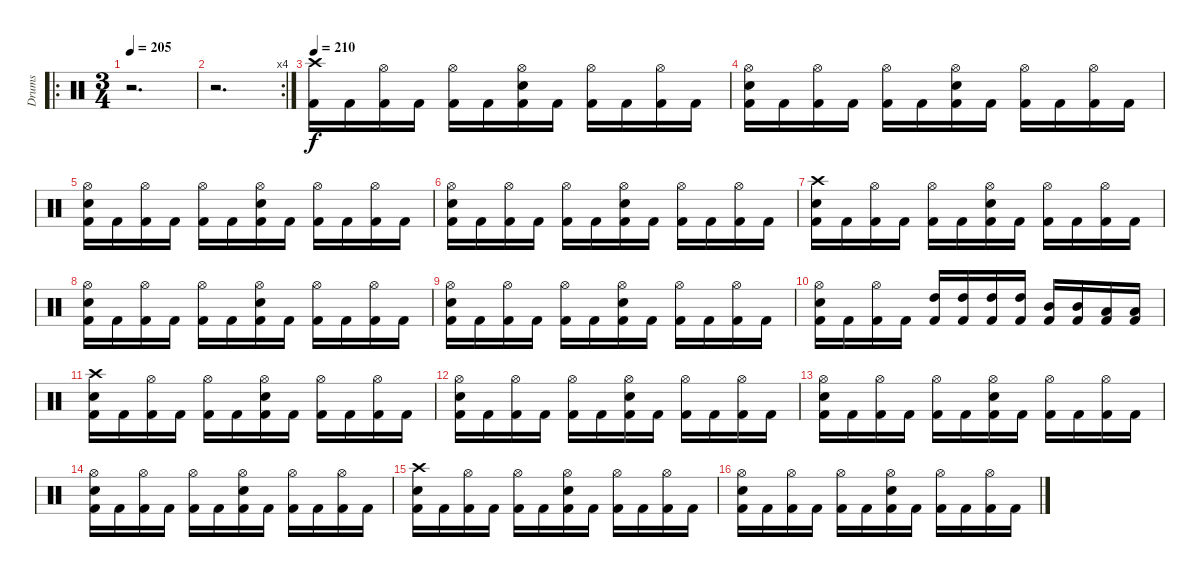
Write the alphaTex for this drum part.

\track ("Drums" "Drums") {instrument percussion}
\staff {score}
\articulation defaults
\ro
\ts (3 4)
\tempo 205
\tempo 160
\tempo 205
\clef neutral
\ks c
r.2{d dy f} |
\rc 4
r.2{d} |
\tempo 210
("Kick (hit) 2" "Crash high (hit)").16 "Kick (hit) 2".16 ("Kick (hit) 2" "Hi-Hat (open)").16 "Kick (hit) 2".16 ("Kick (hit) 2" "Hi-Hat (open)").16 "Kick (hit) 2".16 ("Kick (hit) 2" "Electric Snare (hit)" "Hi-Hat (open)").16 "Kick (hit) 2".16 ("Kick (hit) 2" "Hi-Hat (open)").16 "Kick (hit) 2".16 ("Kick (hit) 2" "Hi-Hat (open)").16 "Kick (hit) 2".16 |
("Kick (hit) 2" "Electric Snare (hit)" "Hi-Hat (open)").16 "Kick (hit) 2".16 ("Kick (hit) 2" "Hi-Hat (open)").16 "Kick (hit) 2".16 ("Kick (hit) 2" "Hi-Hat (open)").16 "Kick (hit) 2".16 ("Kick (hit) 2" "Electric Snare (hit)" "Hi-Hat (open)").16 "Kick (hit) 2".16 ("Kick (hit) 2" "Hi-Hat (open)").16 "Kick (hit) 2".16 ("Kick (hit) 2" "Hi-Hat (open)").16 "Kick (hit) 2".16 |
("Kick (hit) 2" "Electric Snare (hit)" "Hi-Hat (open)").16 "Kick (hit) 2".16 ("Kick (hit) 2" "Hi-Hat (open)").16 "Kick (hit) 2".16 ("Kick (hit) 2" "Hi-Hat (open)").16 "Kick (hit) 2".16 ("Kick (hit) 2" "Electric Snare (hit)" "Hi-Hat (open)").16 "Kick (hit) 2".16 ("Kick (hit) 2" "Hi-Hat (open)").16 "Kick (hit) 2".16 ("Kick (hit) 2" "Hi-Hat (open)").16 "Kick (hit) 2".16 |
("Kick (hit) 2" "Electric Snare (hit)" "Hi-Hat (open)").16 "Kick (hit) 2".16 ("Kick (hit) 2" "Hi-Hat (open)").16 "Kick (hit) 2".16 ("Kick (hit) 2" "Hi-Hat (open)").16 "Kick (hit) 2".16 ("Kick (hit) 2" "Electric Snare (hit)" "Hi-Hat (open)").16 "Kick (hit) 2".16 ("Kick (hit) 2" "Hi-Hat (open)").16 "Kick (hit) 2".16 ("Kick (hit) 2" "Hi-Hat (open)").16 "Kick (hit) 2".16 |
("Kick (hit) 2" "Electric Snare (hit)" "Crash high (hit)").16 "Kick (hit) 2".16 ("Kick (hit) 2" "Hi-Hat (open)").16 "Kick (hit) 2".16 ("Kick (hit) 2" "Hi-Hat (open)").16 "Kick (hit) 2".16 ("Kick (hit) 2" "Electric Snare (hit)" "Hi-Hat (open)").16 "Kick (hit) 2".16 ("Kick (hit) 2" "Hi-Hat (open)").16 "Kick (hit) 2".16 ("Kick (hit) 2" "Hi-Hat (open)").16 "Kick (hit) 2".16 |
("Kick (hit) 2" "Electric Snare (hit)" "Hi-Hat (open)").16 "Kick (hit) 2".16 ("Kick (hit) 2" "Hi-Hat (open)").16 "Kick (hit) 2".16 ("Kick (hit) 2" "Hi-Hat (open)").16 "Kick (hit) 2".16 ("Kick (hit) 2" "Electric Snare (hit)" "Hi-Hat (open)").16 "Kick (hit) 2".16 ("Kick (hit) 2" "Hi-Hat (open)").16 "Kick (hit) 2".16 ("Kick (hit) 2" "Hi-Hat (open)").16 "Kick (hit) 2".16 |
("Kick (hit) 2" "Electric Snare (hit)" "Hi-Hat (open)").16 "Kick (hit) 2".16 ("Kick (hit) 2" "Hi-Hat (open)").16 "Kick (hit) 2".16 ("Kick (hit) 2" "Hi-Hat (open)").16 "Kick (hit) 2".16 ("Kick (hit) 2" "Electric Snare (hit)" "Hi-Hat (open)").16 "Kick (hit) 2".16 ("Kick (hit) 2" "Hi-Hat (open)").16 "Kick (hit) 2".16 ("Kick (hit) 2" "Hi-Hat (open)").16 "Kick (hit) 2".16 |
("Kick (hit) 2" "Electric Snare (hit)" "Hi-Hat (open)").16 "Kick (hit) 2".16 ("Kick (hit) 2" "Hi-Hat (open)").16 "Kick (hit) 2".16 ("Kick (hit) 2" "High Tom (hit)").16 ("Kick (hit) 2" "High Tom (hit)").16 ("Kick (hit) 2" "High Tom (hit)").16 ("Kick (hit) 2" "High Tom (hit)").16 ("Kick (hit) 2" "Mid Tom (hit)").16 ("Kick (hit) 2" "Mid Tom (hit)").16 ("Kick (hit) 2" "Low Tom (hit)").16 ("Kick (hit) 2" "Low Tom (hit)").16 |
("Kick (hit) 2" "Electric Snare (hit)" "Crash high (hit)").16 "Kick (hit) 2".16 ("Kick (hit) 2" "Hi-Hat (open)").16 "Kick (hit) 2".16 ("Kick (hit) 2" "Hi-Hat (open)").16 "Kick (hit) 2".16 ("Kick (hit) 2" "Electric Snare (hit)" "Hi-Hat (open)").16 "Kick (hit) 2".16 ("Kick (hit) 2" "Hi-Hat (open)").16 "Kick (hit) 2".16 ("Kick (hit) 2" "Hi-Hat (open)").16 "Kick (hit) 2".16 |
("Kick (hit) 2" "Electric Snare (hit)" "Hi-Hat (open)").16 "Kick (hit) 2".16 ("Kick (hit) 2" "Hi-Hat (open)").16 "Kick (hit) 2".16 ("Kick (hit) 2" "Hi-Hat (open)").16 "Kick (hit) 2".16 ("Kick (hit) 2" "Electric Snare (hit)" "Hi-Hat (open)").16 "Kick (hit) 2".16 ("Kick (hit) 2" "Hi-Hat (open)").16 "Kick (hit) 2".16 ("Kick (hit) 2" "Hi-Hat (open)").16 "Kick (hit) 2".16 |
("Kick (hit) 2" "Electric Snare (hit)" "Hi-Hat (open)").16 "Kick (hit) 2".16 ("Kick (hit) 2" "Hi-Hat (open)").16 "Kick (hit) 2".16 ("Kick (hit) 2" "Hi-Hat (open)").16 "Kick (hit) 2".16 ("Kick (hit) 2" "Electric Snare (hit)" "Hi-Hat (open)").16 "Kick (hit) 2".16 ("Kick (hit) 2" "Hi-Hat (open)").16 "Kick (hit) 2".16 ("Kick (hit) 2" "Hi-Hat (open)").16 "Kick (hit) 2".16 |
("Kick (hit) 2" "Electric Snare (hit)" "Hi-Hat (open)").16 "Kick (hit) 2".16 ("Kick (hit) 2" "Hi-Hat (open)").16 "Kick (hit) 2".16 ("Kick (hit) 2" "Hi-Hat (open)").16 "Kick (hit) 2".16 ("Kick (hit) 2" "Electric Snare (hit)" "Hi-Hat (open)").16 "Kick (hit) 2".16 ("Kick (hit) 2" "Hi-Hat (open)").16 "Kick (hit) 2".16 ("Kick (hit) 2" "Hi-Hat (open)").16 "Kick (hit) 2".16 |
("Kick (hit) 2" "Electric Snare (hit)" "Crash high (hit)").16 "Kick (hit) 2".16 ("Kick (hit) 2" "Hi-Hat (open)").16 "Kick (hit) 2".16 ("Kick (hit) 2" "Hi-Hat (open)").16 "Kick (hit) 2".16 ("Kick (hit) 2" "Electric Snare (hit)" "Hi-Hat (open)").16 "Kick (hit) 2".16 ("Kick (hit) 2" "Hi-Hat (open)").16 "Kick (hit) 2".16 ("Kick (hit) 2" "Hi-Hat (open)").16 "Kick (hit) 2".16 |
("Kick (hit) 2" "Electric Snare (hit)" "Hi-Hat (open)").16 "Kick (hit) 2".16 ("Kick (hit) 2" "Hi-Hat (open)").16 "Kick (hit) 2".16 ("Kick (hit) 2" "Hi-Hat (open)").16 "Kick (hit) 2".16 ("Kick (hit) 2" "Electric Snare (hit)" "Hi-Hat (open)").16 "Kick (hit) 2".16 ("Kick (hit) 2" "Hi-Hat (open)").16 "Kick (hit) 2".16 ("Kick (hit) 2" "Hi-Hat (open)").16 "Kick (hit) 2".16
